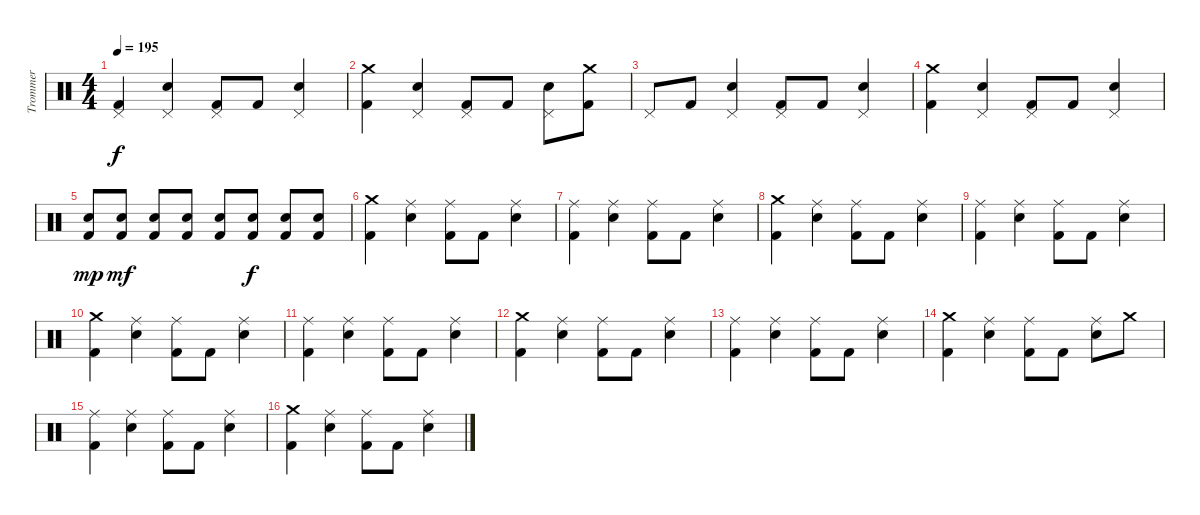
\track ("Trommer" "Trommer") {instrument percussion}
\staff {score}
\articulation defaults
\ts (4 4)
\tempo 195
\clef neutral
\ks c
("Kick (hit) 2" "Pedal Hi-Hat (hit)").4{dy f} ("Snare (hit) 2" "Pedal Hi-Hat (hit)").4 ("Kick (hit) 2" "Pedal Hi-Hat (hit)").8 "Kick (hit) 2".8 ("Snare (hit) 2" "Pedal Hi-Hat (hit)").4 |
("Kick (hit) 2" "Crash medium (hit)").4 ("Pedal Hi-Hat (hit)" "Snare (hit) 2").4 ("Pedal Hi-Hat (hit)" "Kick (hit) 2").8 "Kick (hit) 2".8 ("Pedal Hi-Hat (hit)" "Snare (hit) 2").8 ("Kick (hit) 2" "Crash medium (hit)").8 |
"Pedal Hi-Hat (hit)".8 "Kick (hit) 2".8 ("Pedal Hi-Hat (hit)" "Snare (hit) 2").4 ("Kick (hit) 2" "Pedal Hi-Hat (hit)").8 "Kick (hit) 2".8 ("Pedal Hi-Hat (hit)" "Snare (hit) 2").4 |
("Crash medium (hit)" "Kick (hit) 2").4 ("Pedal Hi-Hat (hit)" "Snare (hit) 2").4 ("Pedal Hi-Hat (hit)" "Kick (hit) 2").8 "Kick (hit) 2".8 ("Snare (hit) 2" "Pedal Hi-Hat (hit)").4 |
("Kick (hit) 2" "Snare (hit) 2").8{dy mp} ("Kick (hit) 2" "Snare (hit) 2").8{dy mf} ("Kick (hit) 2" "Snare (hit) 2").8 ("Kick (hit) 2" "Snare (hit) 2").8 ("Kick (hit) 2" "Snare (hit) 2").8 ("Kick (hit) 2" "Snare (hit) 2").8{dy f} ("Kick (hit) 2" "Snare (hit) 2").8 ("Kick (hit) 2" "Snare (hit) 2").8 |
("Kick (hit) 2" "Crash medium (hit)").4 ("Ride (middle)" "Snare (hit) 2").4 ("Ride (middle)" "Kick (hit) 2").8 "Kick (hit) 2".8 ("Ride (middle)" "Snare (hit) 2").4 |
("Ride (middle)" "Kick (hit) 2").4 ("Ride (middle)" "Snare (hit) 2").4 ("Ride (middle)" "Kick (hit) 2").8 "Kick (hit) 2".8 ("Ride (middle)" "Snare (hit) 2").4 |
("Kick (hit) 2" "Crash medium (hit)").4 ("Ride (middle)" "Snare (hit) 2").4 ("Ride (middle)" "Kick (hit) 2").8 "Kick (hit) 2".8 ("Ride (middle)" "Snare (hit) 2").4 |
("Ride (middle)" "Kick (hit) 2").4 ("Ride (middle)" "Snare (hit) 2").4 ("Ride (middle)" "Kick (hit) 2").8 "Kick (hit) 2".8 ("Ride (middle)" "Snare (hit) 2").4 |
("Kick (hit) 2" "Crash medium (hit)").4 ("Ride (middle)" "Snare (hit) 2").4 ("Ride (middle)" "Kick (hit) 2").8 "Kick (hit) 2".8 ("Ride (middle)" "Snare (hit) 2").4 |
("Kick (hit) 2" "Ride (middle)").4 ("Ride (middle)" "Snare (hit) 2").4 ("Ride (middle)" "Kick (hit) 2").8 "Kick (hit) 2".8 ("Ride (middle)" "Snare (hit) 2").4 |
("Kick (hit) 2" "Crash medium (hit)").4 ("Ride (middle)" "Snare (hit) 2").4 ("Ride (middle)" "Kick (hit) 2").8 "Kick (hit) 2".8 ("Ride (middle)" "Snare (hit) 2").4 |
("Ride (middle)" "Kick (hit) 2").4 ("Ride (middle)" "Snare (hit) 2").4 ("Ride (middle)" "Kick (hit) 2").8 "Kick (hit) 2".8 ("Ride (middle)" "Snare (hit) 2").4 |
("Kick (hit) 2" "Crash medium (hit)").4 ("Ride (middle)" "Snare (hit) 2").4 ("Ride (middle)" "Kick (hit) 2").8 "Kick (hit) 2".8 ("Ride (middle)" "Snare (hit) 2").8 "Crash medium (hit)".8 |
("Ride (middle)" "Kick (hit) 2").4 ("Ride (middle)" "Snare (hit) 2").4 ("Ride (middle)" "Kick (hit) 2").8 "Kick (hit) 2".8 ("Ride (middle)" "Snare (hit) 2").4 |
("Kick (hit) 2" "Crash medium (hit)").4 ("Ride (middle)" "Snare (hit) 2").4 ("Ride (middle)" "Kick (hit) 2").8 "Kick (hit) 2".8 ("Ride (middle)" "Snare (hit) 2").4
